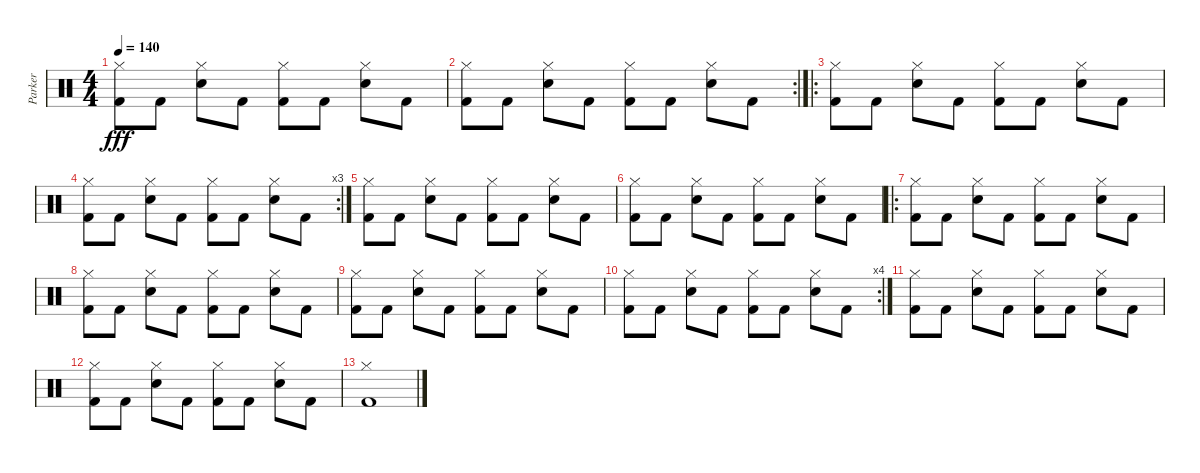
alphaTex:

\track ("Parker" "Parker") {instrument percussion}
\staff {score}
\articulation defaults
\ts (4 4)
\tempo 140
\clef neutral
\ks c
("Kick (hit) 2" "Hi-Hat (closed)").8{dy fff} "Kick (hit) 2".8 ("Hi-Hat (closed)" "Snare (hit) 2").8 "Kick (hit) 2".8 ("Kick (hit) 2" "Hi-Hat (closed)").8 "Kick (hit) 2".8 ("Hi-Hat (closed)" "Snare (hit) 2").8 "Kick (hit) 2".8 |
\rc 2
("Kick (hit) 2" "Hi-Hat (closed)").8 "Kick (hit) 2".8 ("Hi-Hat (closed)" "Snare (hit) 2").8 "Kick (hit) 2".8 ("Kick (hit) 2" "Hi-Hat (closed)").8 "Kick (hit) 2".8 ("Hi-Hat (closed)" "Snare (hit) 2").8 "Kick (hit) 2".8 |
\ro
("Kick (hit) 2" "Hi-Hat (closed)").8 "Kick (hit) 2".8 ("Hi-Hat (closed)" "Snare (hit) 2").8 "Kick (hit) 2".8 ("Kick (hit) 2" "Hi-Hat (closed)").8 "Kick (hit) 2".8 ("Hi-Hat (closed)" "Snare (hit) 2").8 "Kick (hit) 2".8 |
\rc 3
("Kick (hit) 2" "Hi-Hat (closed)").8 "Kick (hit) 2".8 ("Hi-Hat (closed)" "Snare (hit) 2").8 "Kick (hit) 2".8 ("Kick (hit) 2" "Hi-Hat (closed)").8 "Kick (hit) 2".8 ("Hi-Hat (closed)" "Snare (hit) 2").8 "Kick (hit) 2".8 |
("Kick (hit) 2" "Hi-Hat (closed)").8 "Kick (hit) 2".8 ("Hi-Hat (closed)" "Snare (hit) 2").8 "Kick (hit) 2".8 ("Kick (hit) 2" "Hi-Hat (closed)").8 "Kick (hit) 2".8 ("Hi-Hat (closed)" "Snare (hit) 2").8 "Kick (hit) 2".8 |
("Kick (hit) 2" "Hi-Hat (closed)").8 "Kick (hit) 2".8 ("Hi-Hat (closed)" "Snare (hit) 2").8 "Kick (hit) 2".8 ("Kick (hit) 2" "Hi-Hat (closed)").8 "Kick (hit) 2".8 ("Hi-Hat (closed)" "Snare (hit) 2").8 "Kick (hit) 2".8 |
\ro
("Kick (hit) 2" "Hi-Hat (closed)").8 "Kick (hit) 2".8 ("Hi-Hat (closed)" "Snare (hit) 2").8 "Kick (hit) 2".8 ("Kick (hit) 2" "Hi-Hat (closed)").8 "Kick (hit) 2".8 ("Hi-Hat (closed)" "Snare (hit) 2").8 "Kick (hit) 2".8 |
("Kick (hit) 2" "Hi-Hat (closed)").8 "Kick (hit) 2".8 ("Hi-Hat (closed)" "Snare (hit) 2").8 "Kick (hit) 2".8 ("Kick (hit) 2" "Hi-Hat (closed)").8 "Kick (hit) 2".8 ("Hi-Hat (closed)" "Snare (hit) 2").8 "Kick (hit) 2".8 |
("Kick (hit) 2" "Hi-Hat (closed)").8 "Kick (hit) 2".8 ("Hi-Hat (closed)" "Snare (hit) 2").8 "Kick (hit) 2".8 ("Kick (hit) 2" "Hi-Hat (closed)").8 "Kick (hit) 2".8 ("Hi-Hat (closed)" "Snare (hit) 2").8 "Kick (hit) 2".8 |
\rc 4
("Kick (hit) 2" "Hi-Hat (closed)").8 "Kick (hit) 2".8 ("Hi-Hat (closed)" "Snare (hit) 2").8 "Kick (hit) 2".8 ("Kick (hit) 2" "Hi-Hat (closed)").8 "Kick (hit) 2".8 ("Hi-Hat (closed)" "Snare (hit) 2").8 "Kick (hit) 2".8 |
("Kick (hit) 2" "Hi-Hat (closed)").8 "Kick (hit) 2".8 ("Hi-Hat (closed)" "Snare (hit) 2").8 "Kick (hit) 2".8 ("Kick (hit) 2" "Hi-Hat (closed)").8 "Kick (hit) 2".8 ("Hi-Hat (closed)" "Snare (hit) 2").8 "Kick (hit) 2".8 |
("Kick (hit) 2" "Hi-Hat (closed)").8 "Kick (hit) 2".8 ("Hi-Hat (closed)" "Snare (hit) 2").8 "Kick (hit) 2".8 ("Kick (hit) 2" "Hi-Hat (closed)").8 "Kick (hit) 2".8 ("Hi-Hat (closed)" "Snare (hit) 2").8 "Kick (hit) 2".8 |
("Kick (hit) 2" "Hi-Hat (closed)").1
